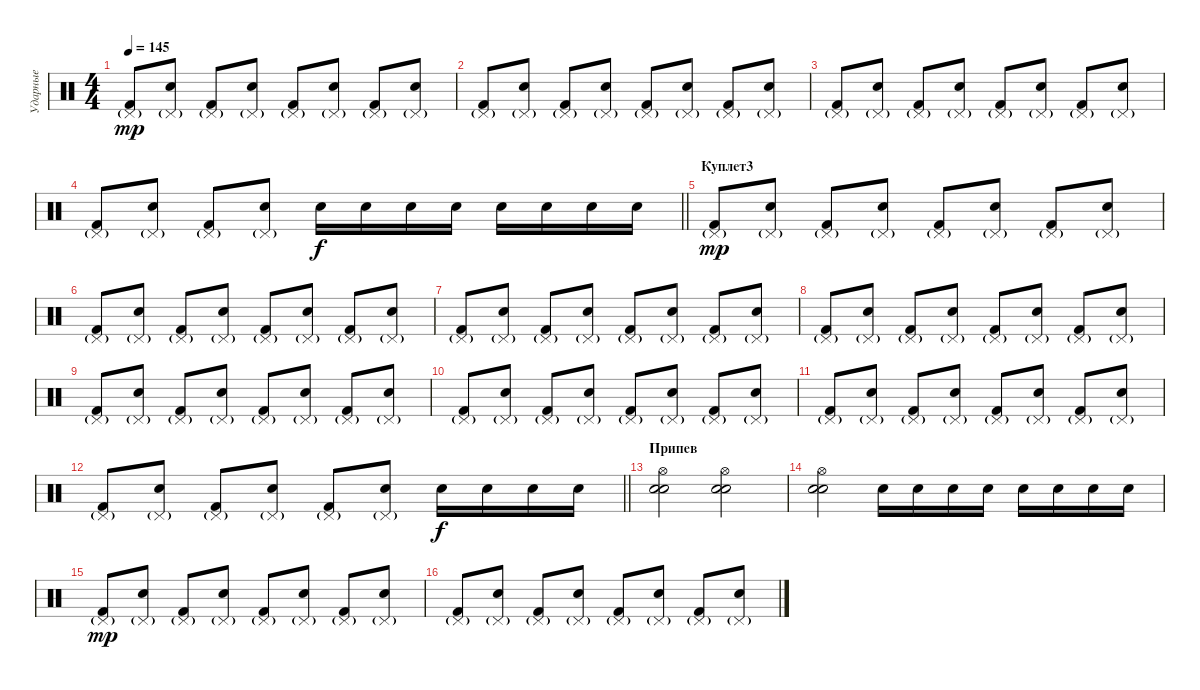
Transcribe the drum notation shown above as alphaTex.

\track ("Ударные" "Ударные") {instrument percussion}
\staff {score}
\articulation defaults
\ts (4 4)
\tempo 145
\clef neutral
\ks c
("Pedal Hi-Hat (hit)"{g} "Kick (hit) 2").8{dy mp} ("Pedal Hi-Hat (hit)"{g} "Electric Snare (hit)").8 ("Pedal Hi-Hat (hit)"{g} "Kick (hit) 2").8 ("Pedal Hi-Hat (hit)"{g} "Electric Snare (hit)").8 ("Pedal Hi-Hat (hit)"{g} "Kick (hit) 2").8 ("Pedal Hi-Hat (hit)"{g} "Electric Snare (hit)").8 ("Pedal Hi-Hat (hit)"{g} "Kick (hit) 2").8 ("Pedal Hi-Hat (hit)"{g} "Electric Snare (hit)").8 |
("Pedal Hi-Hat (hit)"{g} "Kick (hit) 2").8 ("Pedal Hi-Hat (hit)"{g} "Electric Snare (hit)").8 ("Pedal Hi-Hat (hit)"{g} "Kick (hit) 2").8 ("Pedal Hi-Hat (hit)"{g} "Electric Snare (hit)").8 ("Pedal Hi-Hat (hit)"{g} "Kick (hit) 2").8 ("Pedal Hi-Hat (hit)"{g} "Electric Snare (hit)").8 ("Pedal Hi-Hat (hit)"{g} "Kick (hit) 2").8 ("Pedal Hi-Hat (hit)"{g} "Electric Snare (hit)").8 |
("Pedal Hi-Hat (hit)"{g} "Kick (hit) 2").8 ("Pedal Hi-Hat (hit)"{g} "Electric Snare (hit)").8 ("Pedal Hi-Hat (hit)"{g} "Kick (hit) 2").8 ("Pedal Hi-Hat (hit)"{g} "Electric Snare (hit)").8 ("Pedal Hi-Hat (hit)"{g} "Kick (hit) 2").8 ("Pedal Hi-Hat (hit)"{g} "Electric Snare (hit)").8 ("Pedal Hi-Hat (hit)"{g} "Kick (hit) 2").8 ("Pedal Hi-Hat (hit)"{g} "Electric Snare (hit)").8 |
\barLineRight lightlight
("Pedal Hi-Hat (hit)"{g} "Kick (hit) 2").8 ("Pedal Hi-Hat (hit)"{g} "Electric Snare (hit)").8 ("Pedal Hi-Hat (hit)"{g} "Kick (hit) 2").8 ("Pedal Hi-Hat (hit)"{g} "Electric Snare (hit)").8 "Snare (hit) 2".16{dy f} "Snare (hit) 2".16 "Snare (hit) 2".16 "Snare (hit) 2".16 "Snare (hit) 2".16 "Snare (hit) 2".16 "Snare (hit) 2".16 "Snare (hit) 2".16 |
\section ("" "Куплет3")
("Pedal Hi-Hat (hit)"{g} "Kick (hit) 2").8{dy mp} ("Pedal Hi-Hat (hit)"{g} "Electric Snare (hit)").8 ("Pedal Hi-Hat (hit)"{g} "Kick (hit) 2").8 ("Pedal Hi-Hat (hit)"{g} "Electric Snare (hit)").8 ("Pedal Hi-Hat (hit)"{g} "Kick (hit) 2").8 ("Pedal Hi-Hat (hit)"{g} "Electric Snare (hit)").8 ("Pedal Hi-Hat (hit)"{g} "Kick (hit) 2").8 ("Pedal Hi-Hat (hit)"{g} "Electric Snare (hit)").8 |
("Pedal Hi-Hat (hit)"{g} "Kick (hit) 2").8 ("Pedal Hi-Hat (hit)"{g} "Electric Snare (hit)").8 ("Pedal Hi-Hat (hit)"{g} "Kick (hit) 2").8 ("Pedal Hi-Hat (hit)"{g} "Electric Snare (hit)").8 ("Pedal Hi-Hat (hit)"{g} "Kick (hit) 2").8 ("Pedal Hi-Hat (hit)"{g} "Electric Snare (hit)").8 ("Pedal Hi-Hat (hit)"{g} "Kick (hit) 2").8 ("Pedal Hi-Hat (hit)"{g} "Electric Snare (hit)").8 |
("Pedal Hi-Hat (hit)"{g} "Kick (hit) 2").8 ("Pedal Hi-Hat (hit)"{g} "Electric Snare (hit)").8 ("Pedal Hi-Hat (hit)"{g} "Kick (hit) 2").8 ("Pedal Hi-Hat (hit)"{g} "Electric Snare (hit)").8 ("Pedal Hi-Hat (hit)"{g} "Kick (hit) 2").8 ("Pedal Hi-Hat (hit)"{g} "Electric Snare (hit)").8 ("Pedal Hi-Hat (hit)"{g} "Kick (hit) 2").8 ("Pedal Hi-Hat (hit)"{g} "Electric Snare (hit)").8 |
("Pedal Hi-Hat (hit)"{g} "Kick (hit) 2").8 ("Pedal Hi-Hat (hit)"{g} "Electric Snare (hit)").8 ("Pedal Hi-Hat (hit)"{g} "Kick (hit) 2").8 ("Pedal Hi-Hat (hit)"{g} "Electric Snare (hit)").8 ("Pedal Hi-Hat (hit)"{g} "Kick (hit) 2").8 ("Pedal Hi-Hat (hit)"{g} "Electric Snare (hit)").8 ("Pedal Hi-Hat (hit)"{g} "Kick (hit) 2").8 ("Pedal Hi-Hat (hit)"{g} "Electric Snare (hit)").8 |
("Pedal Hi-Hat (hit)"{g} "Kick (hit) 2").8 ("Pedal Hi-Hat (hit)"{g} "Electric Snare (hit)").8 ("Pedal Hi-Hat (hit)"{g} "Kick (hit) 2").8 ("Pedal Hi-Hat (hit)"{g} "Electric Snare (hit)").8 ("Pedal Hi-Hat (hit)"{g} "Kick (hit) 2").8 ("Pedal Hi-Hat (hit)"{g} "Electric Snare (hit)").8 ("Pedal Hi-Hat (hit)"{g} "Kick (hit) 2").8 ("Pedal Hi-Hat (hit)"{g} "Electric Snare (hit)").8 |
("Pedal Hi-Hat (hit)"{g} "Kick (hit) 2").8 ("Pedal Hi-Hat (hit)"{g} "Electric Snare (hit)").8 ("Pedal Hi-Hat (hit)"{g} "Kick (hit) 2").8 ("Pedal Hi-Hat (hit)"{g} "Electric Snare (hit)").8 ("Pedal Hi-Hat (hit)"{g} "Kick (hit) 2").8 ("Pedal Hi-Hat (hit)"{g} "Electric Snare (hit)").8 ("Pedal Hi-Hat (hit)"{g} "Kick (hit) 2").8 ("Pedal Hi-Hat (hit)"{g} "Electric Snare (hit)").8 |
("Pedal Hi-Hat (hit)"{g} "Kick (hit) 2").8 ("Pedal Hi-Hat (hit)"{g} "Electric Snare (hit)").8 ("Pedal Hi-Hat (hit)"{g} "Kick (hit) 2").8 ("Pedal Hi-Hat (hit)"{g} "Electric Snare (hit)").8 ("Pedal Hi-Hat (hit)"{g} "Kick (hit) 2").8 ("Pedal Hi-Hat (hit)"{g} "Electric Snare (hit)").8 ("Pedal Hi-Hat (hit)"{g} "Kick (hit) 2").8 ("Pedal Hi-Hat (hit)"{g} "Electric Snare (hit)").8 |
\barLineRight lightlight
("Pedal Hi-Hat (hit)"{g} "Kick (hit) 2").8 ("Pedal Hi-Hat (hit)"{g} "Electric Snare (hit)").8 ("Pedal Hi-Hat (hit)"{g} "Kick (hit) 2").8 ("Pedal Hi-Hat (hit)"{g} "Electric Snare (hit)").8 ("Pedal Hi-Hat (hit)"{g} "Kick (hit) 2").8 ("Pedal Hi-Hat (hit)"{g} "Electric Snare (hit)").8 "Snare (hit) 2".16{dy f} "Snare (hit) 2".16 "Snare (hit) 2".16 "Snare (hit) 2".16 |
\section ("" "Припев")
("Hi-Hat (open)" "Electric Snare (hit)" "Snare (hit) 2").2 ("Hi-Hat (open)" "Electric Snare (hit)" "Snare (hit) 2").2 |
("Hi-Hat (open)" "Electric Snare (hit)" "Snare (hit) 2").2 "Snare (hit) 2".16 "Snare (hit) 2".16 "Snare (hit) 2".16 "Snare (hit) 2".16 "Snare (hit) 2".16 "Snare (hit) 2".16 "Snare (hit) 2".16 "Snare (hit) 2".16 |
("Pedal Hi-Hat (hit)"{g} "Kick (hit) 2").8{dy mp} ("Pedal Hi-Hat (hit)"{g} "Electric Snare (hit)").8 ("Pedal Hi-Hat (hit)"{g} "Kick (hit) 2").8 ("Pedal Hi-Hat (hit)"{g} "Electric Snare (hit)").8 ("Pedal Hi-Hat (hit)"{g} "Kick (hit) 2").8 ("Pedal Hi-Hat (hit)"{g} "Electric Snare (hit)").8 ("Pedal Hi-Hat (hit)"{g} "Kick (hit) 2").8 ("Pedal Hi-Hat (hit)"{g} "Electric Snare (hit)").8 |
("Pedal Hi-Hat (hit)"{g} "Kick (hit) 2").8 ("Pedal Hi-Hat (hit)"{g} "Electric Snare (hit)").8 ("Pedal Hi-Hat (hit)"{g} "Kick (hit) 2").8 ("Pedal Hi-Hat (hit)"{g} "Electric Snare (hit)").8 ("Pedal Hi-Hat (hit)"{g} "Kick (hit) 2").8 ("Pedal Hi-Hat (hit)"{g} "Electric Snare (hit)").8 ("Pedal Hi-Hat (hit)"{g} "Kick (hit) 2").8 ("Pedal Hi-Hat (hit)"{g} "Electric Snare (hit)").8
